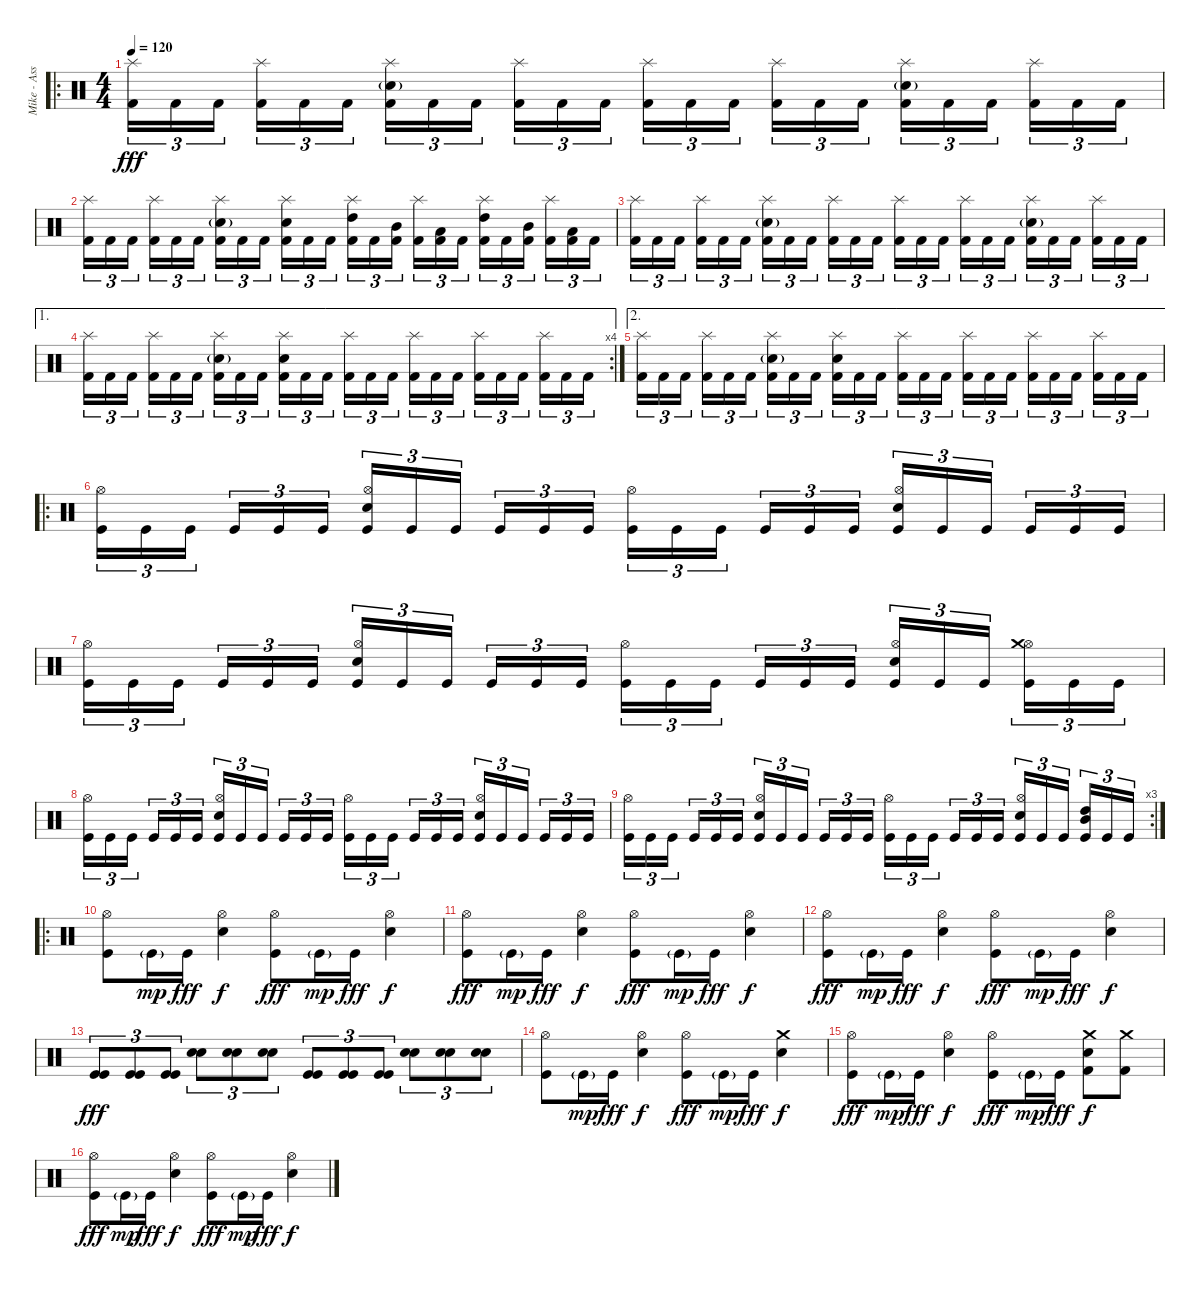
\track ("Mike - Assualt And Battery" "Mike - Ass") {instrument percussion}
\staff {score}
\articulation defaults
\ro
\ts (4 4)
\tempo 120
\clef neutral
\ks c
("Splash (hit)" "Kick (hit) 2").16{tu (3 2) dy fff} "Kick (hit) 2".16{tu (3 2)} "Kick (hit) 2".16{tu (3 2)} ("Splash (hit)" "Kick (hit) 2").16{tu (3 2)} "Kick (hit) 2".16{tu (3 2)} "Kick (hit) 2".16{tu (3 2)} ("Electric Snare (hit)"{g} "Splash (hit)" "Kick (hit) 2").16{tu (3 2)} "Kick (hit) 2".16{tu (3 2)} "Kick (hit) 2".16{tu (3 2)} ("Splash (hit)" "Kick (hit) 2").16{tu (3 2)} "Kick (hit) 2".16{tu (3 2)} "Kick (hit) 2".16{tu (3 2)} ("Splash (hit)" "Kick (hit) 2").16{tu (3 2)} "Kick (hit) 2".16{tu (3 2)} "Kick (hit) 2".16{tu (3 2)} ("Splash (hit)" "Kick (hit) 2").16{tu (3 2)} "Kick (hit) 2".16{tu (3 2)} "Kick (hit) 2".16{tu (3 2)} ("Electric Snare (hit)"{g} "Splash (hit)" "Kick (hit) 2").16{tu (3 2)} "Kick (hit) 2".16{tu (3 2)} "Kick (hit) 2".16{tu (3 2)} ("Splash (hit)" "Kick (hit) 2").16{tu (3 2)} "Kick (hit) 2".16{tu (3 2)} "Kick (hit) 2".16{tu (3 2)} |
("Splash (hit)" "Kick (hit) 2").16{tu (3 2)} "Kick (hit) 2".16{tu (3 2)} "Kick (hit) 2".16{tu (3 2)} ("Splash (hit)" "Kick (hit) 2").16{tu (3 2)} "Kick (hit) 2".16{tu (3 2)} "Kick (hit) 2".16{tu (3 2)} ("Electric Snare (hit)"{g} "Splash (hit)" "Kick (hit) 2").16{tu (3 2)} "Kick (hit) 2".16{tu (3 2)} "Kick (hit) 2".16{tu (3 2)} ("Electric Snare (hit)" "Splash (hit)" "Kick (hit) 2").16{tu (3 2)} "Kick (hit) 2".16{tu (3 2)} "Kick (hit) 2".16{tu (3 2)} ("High Tom (hit)" "Splash (hit)" "Kick (hit) 2").16{tu (3 2)} "Kick (hit) 2".16{tu (3 2)} ("Mid Tom (hit)" "Kick (hit) 2").16{tu (3 2)} ("Splash (hit)" "Kick (hit) 2").16{tu (3 2)} ("Low Tom (hit)" "Kick (hit) 2").16{tu (3 2)} "Kick (hit) 2".16{tu (3 2)} ("High Tom (hit)" "Splash (hit)" "Kick (hit) 2").16{tu (3 2)} "Kick (hit) 2".16{tu (3 2)} ("Mid Tom (hit)" "Kick (hit) 2").16{tu (3 2)} ("Splash (hit)" "Kick (hit) 2").16{tu (3 2)} ("Low Tom (hit)" "Kick (hit) 2").16{tu (3 2)} "Kick (hit) 2".16{tu (3 2)} |
("Splash (hit)" "Kick (hit) 2").16{tu (3 2)} "Kick (hit) 2".16{tu (3 2)} "Kick (hit) 2".16{tu (3 2)} ("Splash (hit)" "Kick (hit) 2").16{tu (3 2)} "Kick (hit) 2".16{tu (3 2)} "Kick (hit) 2".16{tu (3 2)} ("Electric Snare (hit)"{g} "Splash (hit)" "Kick (hit) 2").16{tu (3 2)} "Kick (hit) 2".16{tu (3 2)} "Kick (hit) 2".16{tu (3 2)} ("Splash (hit)" "Kick (hit) 2").16{tu (3 2)} "Kick (hit) 2".16{tu (3 2)} "Kick (hit) 2".16{tu (3 2)} ("Splash (hit)" "Kick (hit) 2").16{tu (3 2)} "Kick (hit) 2".16{tu (3 2)} "Kick (hit) 2".16{tu (3 2)} ("Splash (hit)" "Kick (hit) 2").16{tu (3 2)} "Kick (hit) 2".16{tu (3 2)} "Kick (hit) 2".16{tu (3 2)} ("Electric Snare (hit)"{g} "Splash (hit)" "Kick (hit) 2").16{tu (3 2)} "Kick (hit) 2".16{tu (3 2)} "Kick (hit) 2".16{tu (3 2)} ("Splash (hit)" "Kick (hit) 2").16{tu (3 2)} "Kick (hit) 2".16{tu (3 2)} "Kick (hit) 2".16{tu (3 2)} |
\ae 1
\rc 4
("Splash (hit)" "Kick (hit) 2").16{tu (3 2)} "Kick (hit) 2".16{tu (3 2)} "Kick (hit) 2".16{tu (3 2)} ("Splash (hit)" "Kick (hit) 2").16{tu (3 2)} "Kick (hit) 2".16{tu (3 2)} "Kick (hit) 2".16{tu (3 2)} ("Electric Snare (hit)"{g} "Splash (hit)" "Kick (hit) 2").16{tu (3 2)} "Kick (hit) 2".16{tu (3 2)} "Kick (hit) 2".16{tu (3 2)} ("Electric Snare (hit)" "Splash (hit)" "Kick (hit) 2").16{tu (3 2)} "Kick (hit) 2".16{tu (3 2)} "Kick (hit) 2".16{tu (3 2)} ("Splash (hit)" "Kick (hit) 2").16{tu (3 2)} "Kick (hit) 2".16{tu (3 2)} "Kick (hit) 2".16{tu (3 2)} ("Splash (hit)" "Kick (hit) 2").16{tu (3 2)} "Kick (hit) 2".16{tu (3 2)} "Kick (hit) 2".16{tu (3 2)} ("Splash (hit)" "Kick (hit) 2").16{tu (3 2)} "Kick (hit) 2".16{tu (3 2)} "Kick (hit) 2".16{tu (3 2)} ("Splash (hit)" "Kick (hit) 2").16{tu (3 2)} "Kick (hit) 2".16{tu (3 2)} "Kick (hit) 2".16{tu (3 2)} |
\ae 2
("Splash (hit)" "Kick (hit) 2").16{tu (3 2)} "Kick (hit) 2".16{tu (3 2)} "Kick (hit) 2".16{tu (3 2)} ("Splash (hit)" "Kick (hit) 2").16{tu (3 2)} "Kick (hit) 2".16{tu (3 2)} "Kick (hit) 2".16{tu (3 2)} ("Electric Snare (hit)"{g} "Splash (hit)" "Kick (hit) 2").16{tu (3 2)} "Kick (hit) 2".16{tu (3 2)} "Kick (hit) 2".16{tu (3 2)} ("Electric Snare (hit)" "Splash (hit)" "Kick (hit) 2").16{tu (3 2)} "Kick (hit) 2".16{tu (3 2)} "Kick (hit) 2".16{tu (3 2)} ("Splash (hit)" "Kick (hit) 2").16{tu (3 2)} "Kick (hit) 2".16{tu (3 2)} "Kick (hit) 2".16{tu (3 2)} ("Splash (hit)" "Kick (hit) 2").16{tu (3 2)} "Kick (hit) 2".16{tu (3 2)} "Kick (hit) 2".16{tu (3 2)} ("Splash (hit)" "Kick (hit) 2").16{tu (3 2)} "Kick (hit) 2".16{tu (3 2)} "Kick (hit) 2".16{tu (3 2)} ("Splash (hit)" "Kick (hit) 2").16{tu (3 2)} "Kick (hit) 2".16{tu (3 2)} "Kick (hit) 2".16{tu (3 2)} |
\ro
("Hi-Hat (open)" "Kick (hit)").16{tu (3 2)} "Kick (hit)".16{tu (3 2)} "Kick (hit)".16{tu (3 2)} "Kick (hit)".16{tu (3 2)} "Kick (hit)".16{tu (3 2)} "Kick (hit)".16{tu (3 2)} ("Hi-Hat (open)" "Electric Snare (hit)" "Kick (hit)").16{tu (3 2)} "Kick (hit)".16{tu (3 2)} "Kick (hit)".16{tu (3 2)} "Kick (hit)".16{tu (3 2)} "Kick (hit)".16{tu (3 2)} "Kick (hit)".16{tu (3 2)} ("Hi-Hat (open)" "Kick (hit)").16{tu (3 2)} "Kick (hit)".16{tu (3 2)} "Kick (hit)".16{tu (3 2)} "Kick (hit)".16{tu (3 2)} "Kick (hit)".16{tu (3 2)} "Kick (hit)".16{tu (3 2)} ("Hi-Hat (open)" "Electric Snare (hit)" "Kick (hit)").16{tu (3 2)} "Kick (hit)".16{tu (3 2)} "Kick (hit)".16{tu (3 2)} "Kick (hit)".16{tu (3 2)} "Kick (hit)".16{tu (3 2)} "Kick (hit)".16{tu (3 2)} |
("Hi-Hat (open)" "Kick (hit)").16{tu (3 2)} "Kick (hit)".16{tu (3 2)} "Kick (hit)".16{tu (3 2)} "Kick (hit)".16{tu (3 2)} "Kick (hit)".16{tu (3 2)} "Kick (hit)".16{tu (3 2)} ("Hi-Hat (open)" "Electric Snare (hit)" "Kick (hit)").16{tu (3 2)} "Kick (hit)".16{tu (3 2)} "Kick (hit)".16{tu (3 2)} "Kick (hit)".16{tu (3 2)} "Kick (hit)".16{tu (3 2)} "Kick (hit)".16{tu (3 2)} ("Hi-Hat (open)" "Kick (hit)").16{tu (3 2)} "Kick (hit)".16{tu (3 2)} "Kick (hit)".16{tu (3 2)} "Kick (hit)".16{tu (3 2)} "Kick (hit)".16{tu (3 2)} "Kick (hit)".16{tu (3 2)} ("Hi-Hat (open)" "Electric Snare (hit)" "Kick (hit)").16{tu (3 2)} "Kick (hit)".16{tu (3 2)} "Kick (hit)".16{tu (3 2)} ("Hi-Hat (open)" "Crash medium (hit)" "Kick (hit)").16{tu (3 2)} "Kick (hit)".16{tu (3 2)} "Kick (hit)".16{tu (3 2)} |
("Hi-Hat (open)" "Kick (hit)").16{tu (3 2)} "Kick (hit)".16{tu (3 2)} "Kick (hit)".16{tu (3 2)} "Kick (hit)".16{tu (3 2)} "Kick (hit)".16{tu (3 2)} "Kick (hit)".16{tu (3 2)} ("Hi-Hat (open)" "Electric Snare (hit)" "Kick (hit)").16{tu (3 2)} "Kick (hit)".16{tu (3 2)} "Kick (hit)".16{tu (3 2)} "Kick (hit)".16{tu (3 2)} "Kick (hit)".16{tu (3 2)} "Kick (hit)".16{tu (3 2)} ("Hi-Hat (open)" "Kick (hit)").16{tu (3 2)} "Kick (hit)".16{tu (3 2)} "Kick (hit)".16{tu (3 2)} "Kick (hit)".16{tu (3 2)} "Kick (hit)".16{tu (3 2)} "Kick (hit)".16{tu (3 2)} ("Hi-Hat (open)" "Electric Snare (hit)" "Kick (hit)").16{tu (3 2)} "Kick (hit)".16{tu (3 2)} "Kick (hit)".16{tu (3 2)} "Kick (hit)".16{tu (3 2)} "Kick (hit)".16{tu (3 2)} "Kick (hit)".16{tu (3 2)} |
\rc 3
("Hi-Hat (open)" "Kick (hit)").16{tu (3 2)} "Kick (hit)".16{tu (3 2)} "Kick (hit)".16{tu (3 2)} "Kick (hit)".16{tu (3 2)} "Kick (hit)".16{tu (3 2)} "Kick (hit)".16{tu (3 2)} ("Hi-Hat (open)" "Electric Snare (hit)" "Kick (hit)").16{tu (3 2)} "Kick (hit)".16{tu (3 2)} "Kick (hit)".16{tu (3 2)} "Kick (hit)".16{tu (3 2)} "Kick (hit)".16{tu (3 2)} "Kick (hit)".16{tu (3 2)} ("Hi-Hat (open)" "Kick (hit)").16{tu (3 2)} "Kick (hit)".16{tu (3 2)} "Kick (hit)".16{tu (3 2)} "Kick (hit)".16{tu (3 2)} "Kick (hit)".16{tu (3 2)} "Kick (hit)".16{tu (3 2)} ("Hi-Hat (open)" "Electric Snare (hit)" "Kick (hit)").16{tu (3 2)} "Kick (hit)".16{tu (3 2)} "Kick (hit)".16{tu (3 2)} ("High Tom (hit)" "Mid Tom (hit)" "Kick (hit)").16{tu (3 2)} "Kick (hit)".16{tu (3 2)} "Kick (hit)".16{tu (3 2)} |
\ro
("Hi-Hat (open)" "Kick (hit)").8 "Kick (hit)"{g}.16{dy mp} "Kick (hit)".16{dy fff} ("Hi-Hat (open)" "Snare (hit) 2").4{dy f} ("Hi-Hat (open)" "Kick (hit)").8{dy fff} "Kick (hit)"{g}.16{dy mp} "Kick (hit)".16{dy fff} ("Hi-Hat (open)" "Snare (hit) 2").4{dy f} |
("Hi-Hat (open)" "Kick (hit)").8{dy fff} "Kick (hit)"{g}.16{dy mp} "Kick (hit)".16{dy fff} ("Hi-Hat (open)" "Snare (hit) 2").4{dy f} ("Hi-Hat (open)" "Kick (hit)").8{dy fff} "Kick (hit)"{g}.16{dy mp} "Kick (hit)".16{dy fff} ("Hi-Hat (open)" "Snare (hit) 2").4{dy f} |
("Hi-Hat (open)" "Kick (hit)").8{dy fff} "Kick (hit)"{g}.16{dy mp} "Kick (hit)".16{dy fff} ("Hi-Hat (open)" "Snare (hit) 2").4{dy f} ("Hi-Hat (open)" "Kick (hit)").8{dy fff} "Kick (hit)"{g}.16{dy mp} "Kick (hit)".16{dy fff} ("Hi-Hat (open)" "Snare (hit) 2").4{dy f} |
("Kick (hit)" "Kick (hit)").8{tu (3 2) dy fff} ("Kick (hit)" "Kick (hit)").8{tu (3 2)} ("Kick (hit)" "Kick (hit)").8{tu (3 2)} ("Snare (hit) 2" "Snare (hit) 2").8{tu (3 2)} ("Snare (hit) 2" "Snare (hit) 2").8{tu (3 2)} ("Snare (hit) 2" "Snare (hit) 2").8{tu (3 2)} ("Kick (hit)" "Kick (hit)").8{tu (3 2)} ("Kick (hit)" "Kick (hit)").8{tu (3 2)} ("Kick (hit)" "Kick (hit)").8{tu (3 2)} ("Snare (hit) 2" "Snare (hit) 2").8{tu (3 2)} ("Snare (hit) 2" "Snare (hit) 2").8{tu (3 2)} ("Snare (hit) 2" "Snare (hit) 2").8{tu (3 2)} |
("Hi-Hat (open)" "Kick (hit)").8 "Kick (hit)"{g}.16{dy mp} "Kick (hit)".16{dy fff} ("Hi-Hat (open)" "Snare (hit) 2").4{dy f} ("Hi-Hat (open)" "Kick (hit)").8{dy fff} "Kick (hit)"{g}.16{dy mp} "Kick (hit)".16{dy fff} ("Crash medium (hit)" "Snare (hit) 2").4{dy f} |
("Hi-Hat (open)" "Kick (hit)").8{dy fff} "Kick (hit)"{g}.16{dy mp} "Kick (hit)".16{dy fff} ("Hi-Hat (open)" "Snare (hit) 2").4{dy f} ("Hi-Hat (open)" "Kick (hit)").8{dy fff} "Kick (hit)"{g}.16{dy mp} "Kick (hit)".16{dy fff} ("Crash medium (hit)" "Snare (hit) 2" "Kick (hit) 2").8{dy f} ("Crash medium (hit)" "Kick (hit) 2").8 |
("Hi-Hat (open)" "Kick (hit)").8{dy fff} "Kick (hit)"{g}.16{dy mp} "Kick (hit)".16{dy fff} ("Hi-Hat (open)" "Snare (hit) 2").4{dy f} ("Hi-Hat (open)" "Kick (hit)").8{dy fff} "Kick (hit)"{g}.16{dy mp} "Kick (hit)".16{dy fff} ("Hi-Hat (open)" "Snare (hit) 2").4{dy f}
